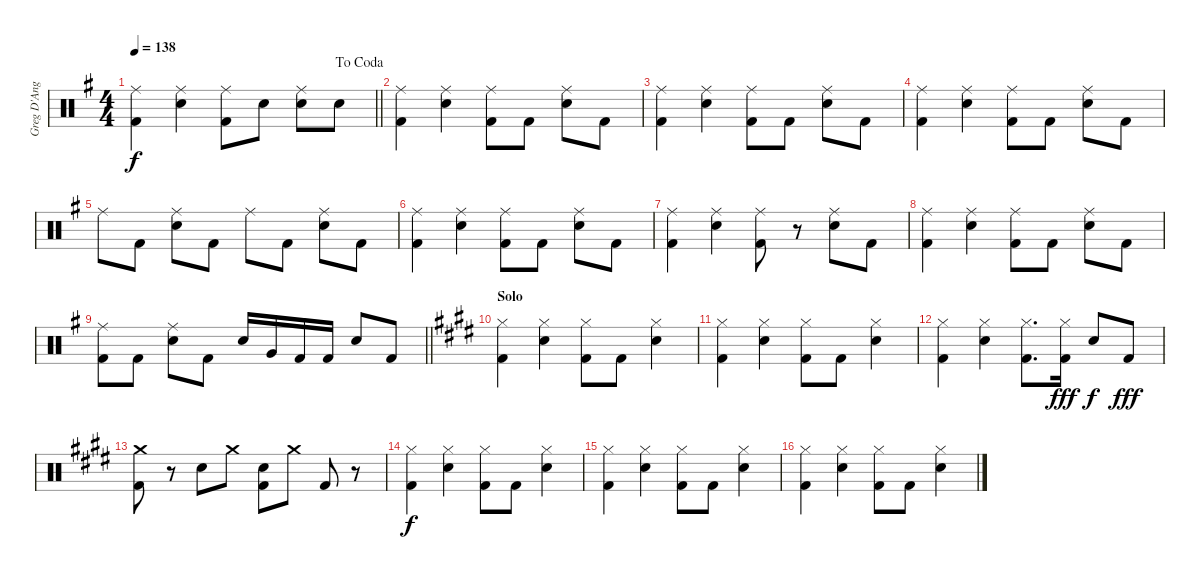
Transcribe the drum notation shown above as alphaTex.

\track ("Greg D'Angelo" "Greg D'Ang") {instrument percussion}
\staff {score}
\articulation defaults
\ts (4 4)
\jump dacoda
\tempo 138
\clef neutral
\barLineRight lightlight
\ks g
("Ride (middle)" "Kick (hit) 2").4{dy f} ("Ride (middle)" "Snare (hit) 2").4 ("Ride (middle)" "Kick (hit) 2").8 "Snare (hit) 2".8 ("Ride (middle)" "Snare (hit) 2").8 "Snare (hit) 2".8 |
("Ride (middle)" "Kick (hit) 2").4 ("Ride (middle)" "Snare (hit) 2").4 ("Ride (middle)" "Kick (hit) 2").8 "Kick (hit) 2".8 ("Ride (middle)" "Snare (hit) 2").8 "Kick (hit) 2".8 |
("Ride (middle)" "Kick (hit) 2").4 ("Ride (middle)" "Snare (hit) 2").4 ("Ride (middle)" "Kick (hit) 2").8 "Kick (hit) 2".8 ("Ride (middle)" "Snare (hit) 2").8 "Kick (hit) 2".8 |
("Ride (middle)" "Kick (hit) 2").4 ("Ride (middle)" "Snare (hit) 2").4 ("Ride (middle)" "Kick (hit) 2").8 "Kick (hit) 2".8 ("Ride (middle)" "Snare (hit) 2").8 "Kick (hit) 2".8 |
"Ride (middle)".8 "Kick (hit) 2".8 ("Ride (middle)" "Snare (hit) 2").8 "Kick (hit) 2".8 "Ride (middle)".8 "Kick (hit) 2".8 ("Ride (middle)" "Snare (hit) 2").8 "Kick (hit) 2".8 |
("Ride (middle)" "Kick (hit) 2").4 ("Ride (middle)" "Snare (hit) 2").4 ("Ride (middle)" "Kick (hit) 2").8 "Kick (hit) 2".8 ("Ride (middle)" "Snare (hit) 2").8 "Kick (hit) 2".8 |
("Ride (middle)" "Kick (hit) 2").4 ("Ride (middle)" "Snare (hit) 2").4 ("Ride (middle)" "Kick (hit) 2").8 r.8 ("Ride (middle)" "Snare (hit) 2").8 "Kick (hit) 2".8 |
("Ride (middle)" "Kick (hit) 2").4 ("Ride (middle)" "Snare (hit) 2").4 ("Ride (middle)" "Kick (hit) 2").8 "Kick (hit) 2".8 ("Ride (middle)" "Snare (hit) 2").8 "Kick (hit) 2".8 |
\barLineRight lightlight
("Ride (middle)" "Kick (hit) 2").8 "Kick (hit) 2".8 ("Ride (middle)" "Snare (hit) 2").8 "Kick (hit) 2".8 "Snare (hit) 2".16 "Very Low Tom (hit)".16 "Kick (hit) 2".16 "Kick (hit) 2".16 "Snare (hit) 2".8 "Kick (hit) 2".8 |
\section ("" "Solo")
\ks e
("Hi-Hat (closed)" "Kick (hit) 2").4 ("Hi-Hat (closed)" "Snare (hit) 2").4 ("Hi-Hat (closed)" "Kick (hit) 2").8 "Kick (hit) 2".8 ("Hi-Hat (closed)" "Snare (hit) 2").4 |
\ks c#minor
("Hi-Hat (closed)" "Kick (hit) 2").4 ("Hi-Hat (closed)" "Snare (hit) 2").4 ("Hi-Hat (closed)" "Kick (hit) 2").8 "Kick (hit) 2".8 ("Hi-Hat (closed)" "Snare (hit) 2").4 |
("Hi-Hat (closed)" "Kick (hit) 2").4 ("Hi-Hat (closed)" "Snare (hit) 2").4 ("Hi-Hat (closed)" "Kick (hit) 2").8{d} ("Hi-Hat (closed)" "Kick (hit) 2").16{dy fff} "Snare (hit) 2".8{dy f} "Kick (hit) 2".8{dy fff} |
("Crash medium (hit)" "Kick (hit) 2").8 r.8 "Snare (hit) 2".8 "Crash medium (hit)".8 ("Snare (hit) 2" "Kick (hit) 2").8 "Crash medium (hit)".8 "Kick (hit) 2".8 r.8 |
\ks e
("Hi-Hat (closed)" "Kick (hit) 2").4{dy f} ("Hi-Hat (closed)" "Snare (hit) 2").4 ("Hi-Hat (closed)" "Kick (hit) 2").8 "Kick (hit) 2".8 ("Hi-Hat (closed)" "Snare (hit) 2").4 |
\ks c#minor
("Hi-Hat (closed)" "Kick (hit) 2").4 ("Hi-Hat (closed)" "Snare (hit) 2").4 ("Hi-Hat (closed)" "Kick (hit) 2").8 "Kick (hit) 2".8 ("Hi-Hat (closed)" "Snare (hit) 2").4 |
("Hi-Hat (closed)" "Kick (hit) 2").4 ("Hi-Hat (closed)" "Snare (hit) 2").4 ("Hi-Hat (closed)" "Kick (hit) 2").8 "Kick (hit) 2".8 ("Hi-Hat (closed)" "Snare (hit) 2").4
